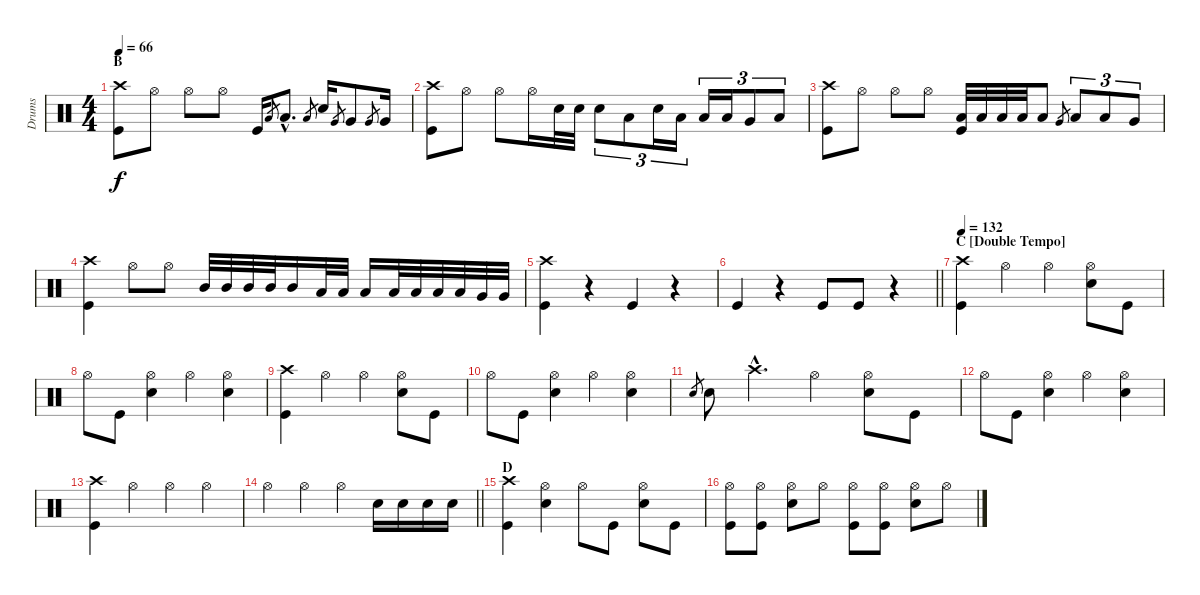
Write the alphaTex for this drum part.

\track ("Drums" "Drums") {instrument percussion}
\staff {score}
\articulation defaults
\ts (4 4)
\section ("" "B")
\tempo 66
\clef neutral
\ks c
("Crash high (hit)" "Kick (hit)").8{dy f} "Hi-Hat (open)".8 "Hi-Hat (open)".8 "Hi-Hat (open)".8 "Kick (hit)".16 "Low Tom (hit)".8{gr} "Low Tom (hit)"{hac}.8{d} "Low Tom (hit)".8{gr} "Electric Snare (hit)".16 "Very Low Tom (hit)".8{gr} "Very Low Tom (hit)".8 "Very Low Tom (hit)".8{gr} "Very Low Tom (hit)".16 |
("Crash high (hit)" "Kick (hit)").8 "Hi-Hat (open)".8 "Hi-Hat (open)".8 "Hi-Hat (open)".16 "Electric Snare (hit)".32 "Electric Snare (hit)".32 "Electric Snare (hit)".8{tu (3 2)} "Low Tom (hit)".8{tu (3 2)} "Electric Snare (hit)".16{tu (3 2)} "Low Tom (hit)".16{tu (3 2)} "Low Tom (hit)".16{tu (3 2)} "Low Tom (hit)".16{tu (3 2)} "Very Low Tom (hit)".8{tu (3 2)} "Low Tom (hit)".8{tu (3 2)} |
("Crash high (hit)" "Kick (hit)").8 "Hi-Hat (open)".8 "Hi-Hat (open)".8 "Hi-Hat (open)".8 ("Low Tom (hit)" "Kick (hit)").32 "Low Tom (hit)".32 "Low Tom (hit)".32 "Low Tom (hit)".32 "Low Tom (hit)".8 "Very Low Tom (hit)".8{gr} "Low Floor Tom (hit)".8{tu (3 2)} "Low Floor Tom (hit)".8{tu (3 2)} "Very Low Tom (hit)".8{tu (3 2)} |
("Crash high (hit)" "Kick (hit)").4 "Hi-Hat (open)".8 "Hi-Hat (open)".8 "Mid Tom (hit)".32 "Mid Tom (hit)".32 "Mid Tom (hit)".32 "Mid Tom (hit)".32 "Mid Tom (hit)".16 "Low Tom (hit)".32 "Low Tom (hit)".32 "Low Tom (hit)".16 "Low Floor Tom (hit)".32 "Low Floor Tom (hit)".32 "Low Floor Tom (hit)".32 "Low Floor Tom (hit)".32 "Very Low Tom (hit)".32 "Very Low Tom (hit)".32 |
("Crash high (hit)" "Kick (hit)").4 r.4 "Kick (hit)".4 r.4 |
\barLineRight lightlight "Kick (hit)".4
r.4 "Kick (hit)".8 "Kick (hit)".8 r.4 |
\section ("" "C [Double Tempo]")
\tempo 132
("Crash high (hit)" "Kick (hit)").4 "Hi-Hat (open)".4 "Hi-Hat (open)".4 ("Hi-Hat (open)" "Electric Snare (hit)").8 "Kick (hit)".8 |
"Hi-Hat (open)".8 "Kick (hit)".8 ("Hi-Hat (open)" "Electric Snare (hit)").4 "Hi-Hat (open)".4 ("Hi-Hat (open)" "Electric Snare (hit)").4 |
("Crash high (hit)" "Kick (hit)").4 "Hi-Hat (open)".4 "Hi-Hat (open)".4 ("Hi-Hat (open)" "Electric Snare (hit)").8 "Kick (hit)".8 |
"Hi-Hat (open)".8 "Kick (hit)".8 ("Hi-Hat (open)" "Electric Snare (hit)").4 "Hi-Hat (open)".4 ("Hi-Hat (open)" "Electric Snare (hit)").4 |
"Electric Snare (hit)".8{gr} "Electric Snare (hit)".8 "Crash high (hit)"{hac}.4{d} "Hi-Hat (open)".4 ("Hi-Hat (open)" "Electric Snare (hit)").8 "Kick (hit)".8 |
"Hi-Hat (open)".8 "Kick (hit)".8 ("Hi-Hat (open)" "Electric Snare (hit)").4 "Hi-Hat (open)".4 ("Hi-Hat (open)" "Electric Snare (hit)").4 |
("Crash high (hit)" "Kick (hit)").4 "Hi-Hat (open)".4 "Hi-Hat (open)".4 "Hi-Hat (open)".4 |
\barLineRight lightlight "Hi-Hat (open)".4 "Hi-Hat (open)".4 "Hi-Hat (open)".4 "Electric Snare (hit)".16 "Electric Snare (hit)".16 "Electric Snare (hit)".16 "Electric Snare (hit)".16
|
\section ("" "D")
("Crash high (hit)" "Kick (hit)").4 ("Hi-Hat (open)" "Electric Snare (hit)").4 "Hi-Hat (open)".8 "Kick (hit)".8 ("Hi-Hat (open)" "Electric Snare (hit)").8 "Kick (hit)".8 |
("Hi-Hat (open)" "Kick (hit)").8 ("Hi-Hat (open)" "Kick (hit)").8 ("Hi-Hat (open)" "Electric Snare (hit)").8 "Hi-Hat (open)".8 ("Hi-Hat (open)" "Kick (hit)").8 ("Hi-Hat (open)" "Kick (hit)").8 ("Hi-Hat (open)" "Electric Snare (hit)").8 "Hi-Hat (open)".8
